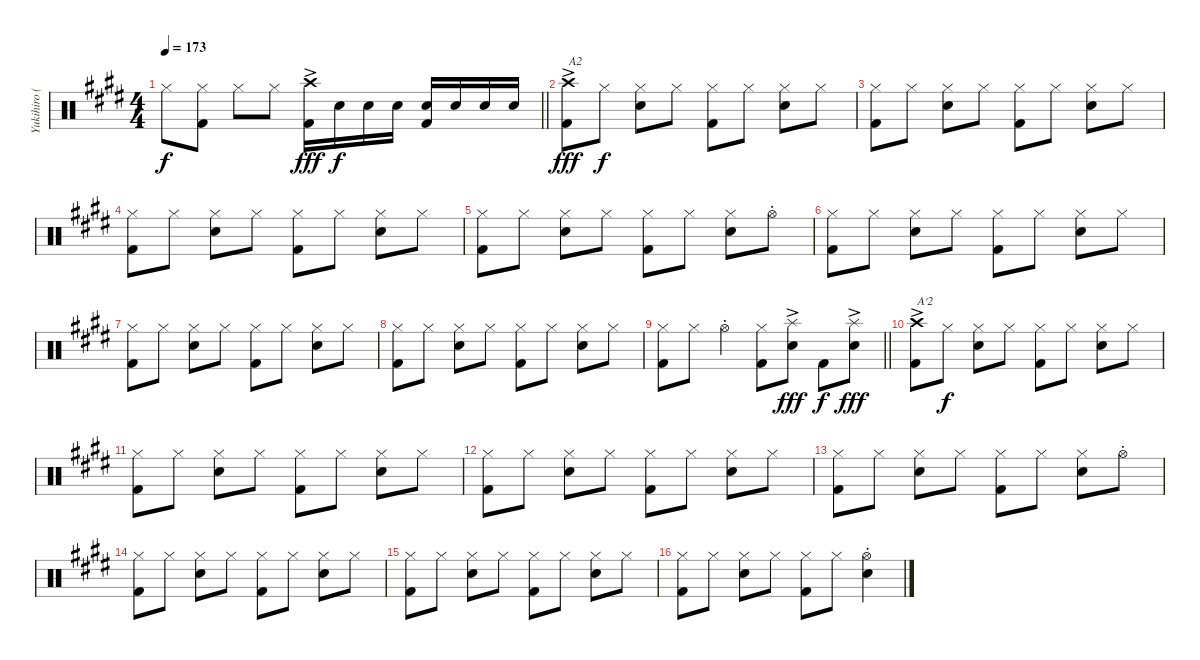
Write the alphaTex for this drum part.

\track ("Yukihiro (Drums)" "Yukihiro (") {instrument percussion}
\staff {score}
\articulation defaults
\ts (4 4)
\tempo 173
\clef neutral
\barLineRight lightlight
\ks e "Hi-Hat (closed)".8{dy f}
("Hi-Hat (closed)" "Kick (hit) 2").8 "Hi-Hat (closed)".8 "Hi-Hat (closed)".8 ("Crash high (hit)"{ac} "Kick (hit) 2").16{dy fff} "Electric Snare (hit)".16{dy f} "Electric Snare (hit)".16 "Electric Snare (hit)".16 ("Electric Snare (hit)" "Kick (hit) 2").16 "Electric Snare (hit)".16 "Electric Snare (hit)".16 "Electric Snare (hit)".16 |
("Crash high (hit)"{ac} "Kick (hit) 2").8{txt "A2" dy fff} "Hi-Hat (closed)".8{dy f} ("Hi-Hat (closed)" "Electric Snare (hit)").8 "Hi-Hat (closed)".8 ("Hi-Hat (closed)" "Kick (hit) 2").8 "Hi-Hat (closed)".8 ("Hi-Hat (closed)" "Electric Snare (hit)").8 "Hi-Hat (closed)".8 |
("Hi-Hat (closed)" "Kick (hit) 2").8 "Hi-Hat (closed)".8 ("Hi-Hat (closed)" "Electric Snare (hit)").8 "Hi-Hat (closed)".8 ("Hi-Hat (closed)" "Kick (hit) 2").8 "Hi-Hat (closed)".8 ("Hi-Hat (closed)" "Electric Snare (hit)").8 "Hi-Hat (closed)".8 |
("Hi-Hat (closed)" "Kick (hit) 2").8 "Hi-Hat (closed)".8 ("Hi-Hat (closed)" "Electric Snare (hit)").8 "Hi-Hat (closed)".8 ("Hi-Hat (closed)" "Kick (hit) 2").8 "Hi-Hat (closed)".8 ("Hi-Hat (closed)" "Electric Snare (hit)").8 "Hi-Hat (closed)".8 |
("Hi-Hat (closed)" "Kick (hit) 2").8 "Hi-Hat (closed)".8 ("Hi-Hat (closed)" "Electric Snare (hit)").8 "Hi-Hat (closed)".8 ("Hi-Hat (closed)" "Kick (hit) 2").8 "Hi-Hat (closed)".8 ("Hi-Hat (closed)" "Electric Snare (hit)").8 "Hi-Hat (open)"{st}.8 |
("Hi-Hat (closed)" "Kick (hit) 2").8 "Hi-Hat (closed)".8 ("Hi-Hat (closed)" "Electric Snare (hit)").8 "Hi-Hat (closed)".8 ("Hi-Hat (closed)" "Kick (hit) 2").8 "Hi-Hat (closed)".8 ("Hi-Hat (closed)" "Electric Snare (hit)").8 "Hi-Hat (closed)".8 |
("Hi-Hat (closed)" "Kick (hit) 2").8 "Hi-Hat (closed)".8 ("Hi-Hat (closed)" "Electric Snare (hit)").8 "Hi-Hat (closed)".8 ("Hi-Hat (closed)" "Kick (hit) 2").8 "Hi-Hat (closed)".8 ("Hi-Hat (closed)" "Electric Snare (hit)").8 "Hi-Hat (closed)".8 |
("Hi-Hat (closed)" "Kick (hit) 2").8 "Hi-Hat (closed)".8 ("Hi-Hat (closed)" "Electric Snare (hit)").8 "Hi-Hat (closed)".8 ("Hi-Hat (closed)" "Kick (hit) 2").8 "Hi-Hat (closed)".8 ("Hi-Hat (closed)" "Electric Snare (hit)").8 "Hi-Hat (closed)".8 |
\barLineRight lightlight
("Hi-Hat (closed)" "Kick (hit) 2").8 "Hi-Hat (closed)".8 "Hi-Hat (open)"{st}.4 ("Hi-Hat (closed)" "Kick (hit) 2").8 ("Splash (hit)"{ac} "Electric Snare (hit)").8{dy fff} "Kick (hit) 2".8{dy f} ("Splash (hit)"{ac} "Electric Snare (hit)").8{dy fff} |
("Crash high (hit)"{ac} "Kick (hit) 2").8{txt "A'2"} "Hi-Hat (closed)".8{dy f} ("Hi-Hat (closed)" "Electric Snare (hit)").8 "Hi-Hat (closed)".8 ("Hi-Hat (closed)" "Kick (hit) 2").8 "Hi-Hat (closed)".8 ("Hi-Hat (closed)" "Electric Snare (hit)").8 "Hi-Hat (closed)".8 |
("Hi-Hat (closed)" "Kick (hit) 2").8 "Hi-Hat (closed)".8 ("Hi-Hat (closed)" "Electric Snare (hit)").8 "Hi-Hat (closed)".8 ("Hi-Hat (closed)" "Kick (hit) 2").8 "Hi-Hat (closed)".8 ("Hi-Hat (closed)" "Electric Snare (hit)").8 "Hi-Hat (closed)".8 |
("Hi-Hat (closed)" "Kick (hit) 2").8 "Hi-Hat (closed)".8 ("Hi-Hat (closed)" "Electric Snare (hit)").8 "Hi-Hat (closed)".8 ("Hi-Hat (closed)" "Kick (hit) 2").8 "Hi-Hat (closed)".8 ("Hi-Hat (closed)" "Electric Snare (hit)").8 "Hi-Hat (closed)".8 |
("Hi-Hat (closed)" "Kick (hit) 2").8 "Hi-Hat (closed)".8 ("Hi-Hat (closed)" "Electric Snare (hit)").8 "Hi-Hat (closed)".8 ("Hi-Hat (closed)" "Kick (hit) 2").8 "Hi-Hat (closed)".8 ("Hi-Hat (closed)" "Electric Snare (hit)").8 "Hi-Hat (open)"{st}.8 |
("Hi-Hat (closed)" "Kick (hit) 2").8 "Hi-Hat (closed)".8 ("Hi-Hat (closed)" "Electric Snare (hit)").8 "Hi-Hat (closed)".8 ("Hi-Hat (closed)" "Kick (hit) 2").8 "Hi-Hat (closed)".8 ("Hi-Hat (closed)" "Electric Snare (hit)").8 "Hi-Hat (closed)".8 |
("Hi-Hat (closed)" "Kick (hit) 2").8 "Hi-Hat (closed)".8 ("Hi-Hat (closed)" "Electric Snare (hit)").8 "Hi-Hat (closed)".8 ("Hi-Hat (closed)" "Kick (hit) 2").8 "Hi-Hat (closed)".8 ("Hi-Hat (closed)" "Electric Snare (hit)").8 "Hi-Hat (closed)".8 |
("Hi-Hat (closed)" "Kick (hit) 2").8 "Hi-Hat (closed)".8 ("Hi-Hat (closed)" "Electric Snare (hit)").8 "Hi-Hat (closed)".8 ("Hi-Hat (closed)" "Kick (hit) 2").8 "Hi-Hat (closed)".8 ("Hi-Hat (open)"{st} "Electric Snare (hit)").4
